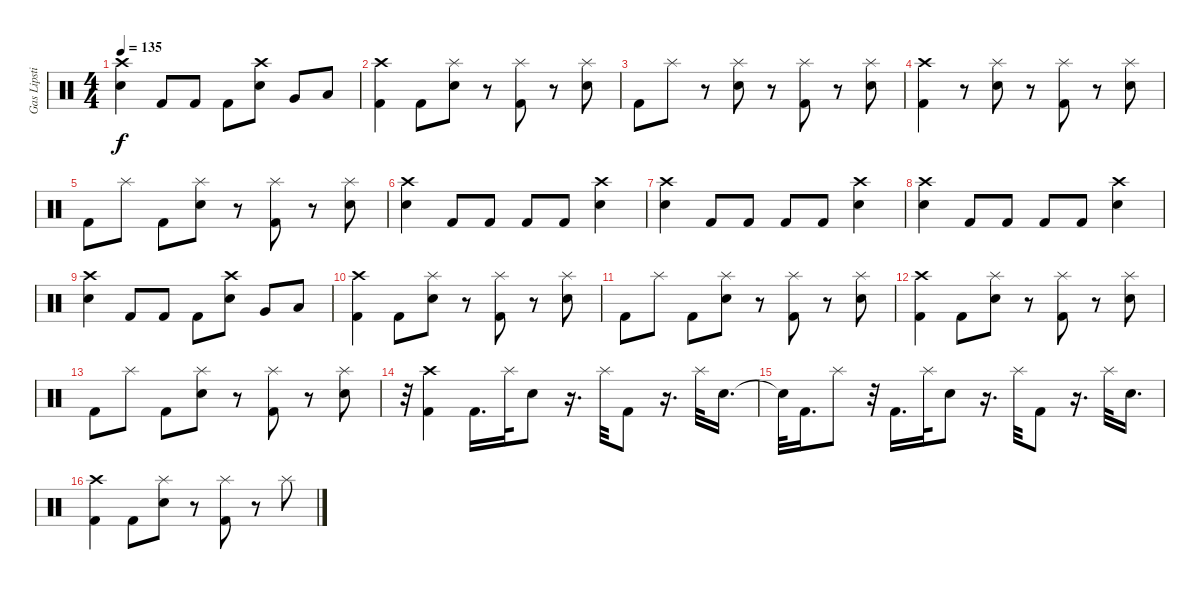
\track ("Gas Lipstick" "Gas Lipsti") {instrument percussion}
\staff {score}
\articulation defaults
\ts (4 4)
\tempo 135
\clef neutral
\ks c
("Crash high (hit)" "Electric Snare (hit)").4{dy f} "Kick (hit) 2".8 "Kick (hit) 2".8 "Kick (hit) 2".8 ("Crash high (hit)" "Electric Snare (hit)").8 "Very Low Tom (hit)".8 "Low Floor Tom (hit)".8 |
("Crash high (hit)" "Kick (hit) 2").4 "Kick (hit) 2".8 ("Splash (hit)" "Electric Snare (hit)").8 r.8 ("Splash (hit)" "Kick (hit) 2").8 r.8 ("Splash (hit)" "Electric Snare (hit)").8 |
"Kick (hit) 2".8 "Splash (hit)".8 r.8 ("Splash (hit)" "Electric Snare (hit)").8 r.8 ("Splash (hit)" "Kick (hit) 2").8 r.8 ("Splash (hit)" "Electric Snare (hit)").8 |
("Crash high (hit)" "Kick (hit) 2").4 r.8 ("Splash (hit)" "Electric Snare (hit)").8 r.8 ("Splash (hit)" "Kick (hit) 2").8 r.8 ("Splash (hit)" "Electric Snare (hit)").8 |
"Kick (hit) 2".8 "Splash (hit)".8 "Kick (hit) 2".8 ("Splash (hit)" "Electric Snare (hit)").8 r.8 ("Splash (hit)" "Kick (hit) 2").8 r.8 ("Splash (hit)" "Electric Snare (hit)").8 |
("Crash high (hit)" "Electric Snare (hit)").4 "Kick (hit) 2".8 "Kick (hit) 2".8 "Kick (hit) 2".8 "Kick (hit) 2".8 ("Crash high (hit)" "Electric Snare (hit)").4 |
("Crash high (hit)" "Electric Snare (hit)").4 "Kick (hit) 2".8 "Kick (hit) 2".8 "Kick (hit) 2".8 "Kick (hit) 2".8 ("Crash high (hit)" "Electric Snare (hit)").4 |
("Crash high (hit)" "Electric Snare (hit)").4 "Kick (hit) 2".8 "Kick (hit) 2".8 "Kick (hit) 2".8 "Kick (hit) 2".8 ("Crash high (hit)" "Electric Snare (hit)").4 |
("Crash high (hit)" "Electric Snare (hit)").4 "Kick (hit) 2".8 "Kick (hit) 2".8 "Kick (hit) 2".8 ("Crash high (hit)" "Electric Snare (hit)").8 "Very Low Tom (hit)".8 "Low Floor Tom (hit)".8 |
("Crash high (hit)" "Kick (hit) 2").4 "Kick (hit) 2".8 ("Splash (hit)" "Electric Snare (hit)").8 r.8 ("Splash (hit)" "Kick (hit) 2").8 r.8 ("Splash (hit)" "Electric Snare (hit)").8 |
"Kick (hit) 2".8 "Splash (hit)".8 "Kick (hit) 2".8 ("Splash (hit)" "Electric Snare (hit)").8 r.8 ("Splash (hit)" "Kick (hit) 2").8 r.8 ("Splash (hit)" "Electric Snare (hit)").8 |
("Crash high (hit)" "Kick (hit) 2").4 "Kick (hit) 2".8 ("Splash (hit)" "Electric Snare (hit)").8 r.8 ("Splash (hit)" "Kick (hit) 2").8 r.8 ("Splash (hit)" "Electric Snare (hit)").8 |
"Kick (hit) 2".8 "Splash (hit)".8 "Kick (hit) 2".8 ("Splash (hit)" "Electric Snare (hit)").8 r.8 ("Splash (hit)" "Kick (hit) 2").8 r.8 ("Splash (hit)" "Electric Snare (hit)").8 |
r.32 ("Crash high (hit)" "Kick (hit) 2").4 "Kick (hit) 2".16{d} "Splash (hit)".32 "Electric Snare (hit)".8 r.16{d} "Splash (hit)".32 "Kick (hit) 2".8 r.16{d} "Splash (hit)".32 "Electric Snare (hit)".16{d} |
"Snare (hit)"{t}.32 "Kick (hit) 2".16{d} "Splash (hit)".8 r.32 "Kick (hit) 2".16{d} "Splash (hit)".32 "Electric Snare (hit)".8 r.16{d} "Splash (hit)".32 "Kick (hit) 2".8 r.16{d} "Splash (hit)".32 "Electric Snare (hit)".16{d} |
("Crash high (hit)" "Kick (hit) 2").4 "Kick (hit) 2".8 ("Splash (hit)" "Electric Snare (hit)").8 r.8 ("Splash (hit)" "Kick (hit) 2").8 r.8 "Splash (hit)".8
